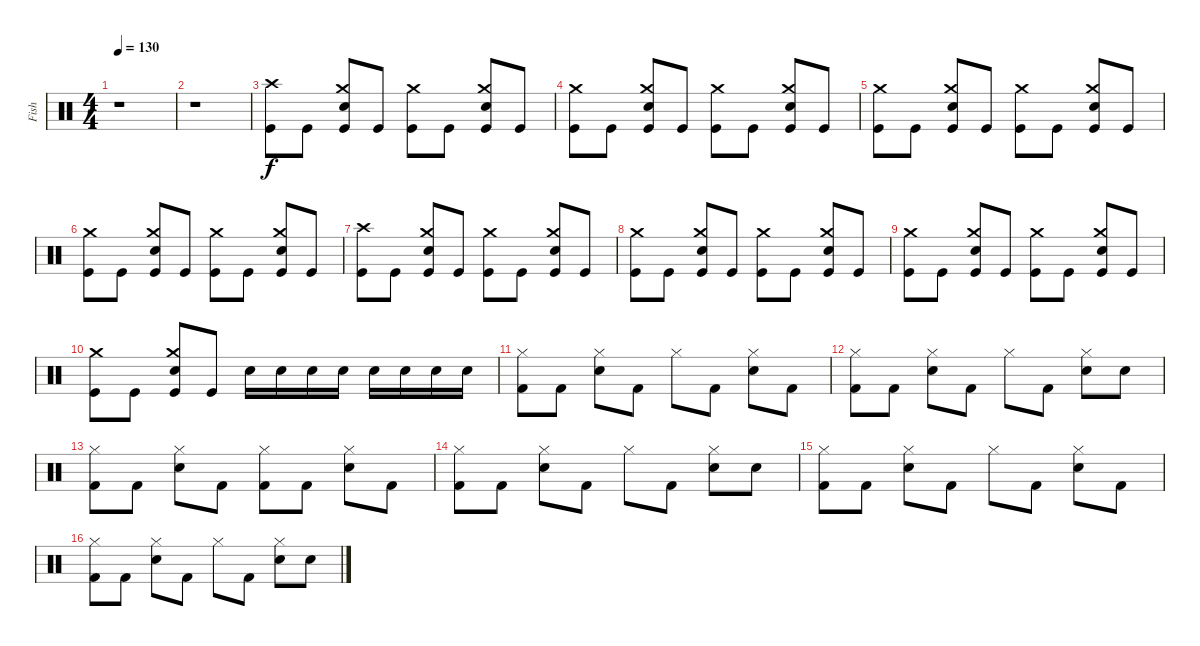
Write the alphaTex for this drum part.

\track ("Fish" "Fish") {instrument percussion}
\staff {score}
\articulation defaults
\ts (4 4)
\tempo 130
\clef neutral
\ks c
r.1{dy f} |
r.1 |
("Crash high (hit)" "Kick (hit)").8 "Kick (hit)".8 ("Crash medium (hit)" "Electric Snare (hit)" "Kick (hit)").8 "Kick (hit)".8 ("Crash medium (hit)" "Kick (hit)").8 "Kick (hit)".8 ("Crash medium (hit)" "Electric Snare (hit)" "Kick (hit)").8 "Kick (hit)".8 |
("Crash medium (hit)" "Kick (hit)").8 "Kick (hit)".8 ("Crash medium (hit)" "Electric Snare (hit)" "Kick (hit)").8 "Kick (hit)".8 ("Crash medium (hit)" "Kick (hit)").8 "Kick (hit)".8 ("Crash medium (hit)" "Electric Snare (hit)" "Kick (hit)").8 "Kick (hit)".8 |
("Crash medium (hit)" "Kick (hit)").8 "Kick (hit)".8 ("Crash medium (hit)" "Electric Snare (hit)" "Kick (hit)").8 "Kick (hit)".8 ("Crash medium (hit)" "Kick (hit)").8 "Kick (hit)".8 ("Crash medium (hit)" "Electric Snare (hit)" "Kick (hit)").8 "Kick (hit)".8 |
("Crash medium (hit)" "Kick (hit)").8 "Kick (hit)".8 ("Crash medium (hit)" "Electric Snare (hit)" "Kick (hit)").8 "Kick (hit)".8 ("Crash medium (hit)" "Kick (hit)").8 "Kick (hit)".8 ("Crash medium (hit)" "Electric Snare (hit)" "Kick (hit)").8 "Kick (hit)".8 |
("Crash high (hit)" "Kick (hit)").8 "Kick (hit)".8 ("Crash medium (hit)" "Electric Snare (hit)" "Kick (hit)").8 "Kick (hit)".8 ("Crash medium (hit)" "Kick (hit)").8 "Kick (hit)".8 ("Crash medium (hit)" "Electric Snare (hit)" "Kick (hit)").8 "Kick (hit)".8 |
("Crash medium (hit)" "Kick (hit)").8 "Kick (hit)".8 ("Crash medium (hit)" "Electric Snare (hit)" "Kick (hit)").8 "Kick (hit)".8 ("Crash medium (hit)" "Kick (hit)").8 "Kick (hit)".8 ("Crash medium (hit)" "Electric Snare (hit)" "Kick (hit)").8 "Kick (hit)".8 |
("Crash medium (hit)" "Kick (hit)").8 "Kick (hit)".8 ("Crash medium (hit)" "Electric Snare (hit)" "Kick (hit)").8 "Kick (hit)".8 ("Crash medium (hit)" "Kick (hit)").8 "Kick (hit)".8 ("Crash medium (hit)" "Electric Snare (hit)" "Kick (hit)").8 "Kick (hit)".8 |
("Crash medium (hit)" "Kick (hit)").8 "Kick (hit)".8 ("Crash medium (hit)" "Electric Snare (hit)" "Kick (hit)").8 "Kick (hit)".8 "Snare (hit) 2".16 "Snare (hit) 2".16 "Snare (hit) 2".16 "Snare (hit) 2".16 "Snare (hit) 2".16 "Snare (hit) 2".16 "Snare (hit) 2".16 "Snare (hit) 2".16 |
("Hi-Hat (closed)" "Kick (hit) 2").8 "Kick (hit) 2".8 ("Hi-Hat (closed)" "Electric Snare (hit)").8 "Kick (hit) 2".8 "Hi-Hat (closed)".8 "Kick (hit) 2".8 ("Hi-Hat (closed)" "Electric Snare (hit)").8 "Kick (hit) 2".8 |
("Hi-Hat (closed)" "Kick (hit) 2").8 "Kick (hit) 2".8 ("Hi-Hat (closed)" "Electric Snare (hit)").8 "Kick (hit) 2".8 "Hi-Hat (closed)".8 "Kick (hit) 2".8 ("Hi-Hat (closed)" "Electric Snare (hit)").8 "Electric Snare (hit)".8 |
("Hi-Hat (closed)" "Kick (hit) 2").8 "Kick (hit) 2".8 ("Hi-Hat (closed)" "Electric Snare (hit)").8 "Kick (hit) 2".8 ("Hi-Hat (closed)" "Kick (hit) 2").8 "Kick (hit) 2".8 ("Hi-Hat (closed)" "Electric Snare (hit)").8 "Kick (hit) 2".8 |
("Hi-Hat (closed)" "Kick (hit) 2").8 "Kick (hit) 2".8 ("Hi-Hat (closed)" "Electric Snare (hit)").8 "Kick (hit) 2".8 "Hi-Hat (closed)".8 "Kick (hit) 2".8 ("Hi-Hat (closed)" "Electric Snare (hit)").8 "Electric Snare (hit)".8 |
("Hi-Hat (closed)" "Kick (hit) 2").8 "Kick (hit) 2".8 ("Hi-Hat (closed)" "Electric Snare (hit)").8 "Kick (hit) 2".8 "Hi-Hat (closed)".8 "Kick (hit) 2".8 ("Hi-Hat (closed)" "Electric Snare (hit)").8 "Kick (hit) 2".8 |
("Hi-Hat (closed)" "Kick (hit) 2").8 "Kick (hit) 2".8 ("Hi-Hat (closed)" "Electric Snare (hit)").8 "Kick (hit) 2".8 "Hi-Hat (closed)".8 "Kick (hit) 2".8 ("Hi-Hat (closed)" "Electric Snare (hit)").8 "Electric Snare (hit)".8
